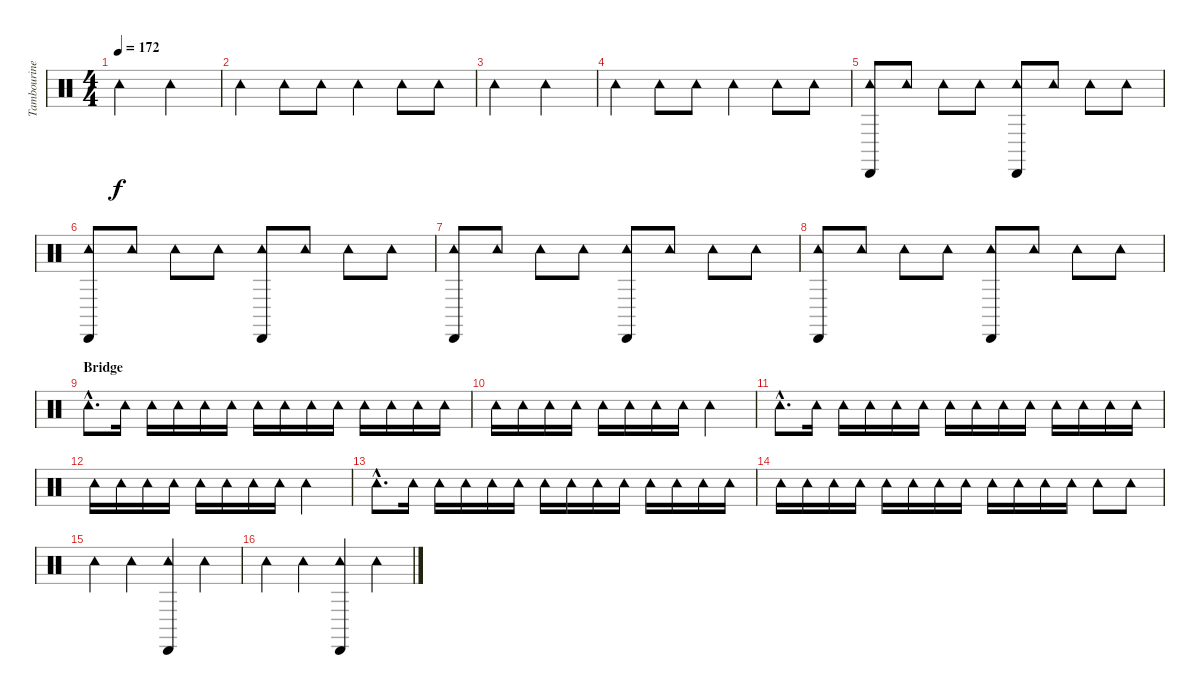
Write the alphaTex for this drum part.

\track ("Tambourine" "Tambourine") {instrument percussion}
\staff {score}
\articulation defaults
\ts (4 4)
\tempo 172
\clef neutral
\ks c "Tambourine (hit)".2{dy f} "Tambourine (hit)".2
|
"Tambourine (hit)".4 "Tambourine (hit)".8 "Tambourine (hit)".8 "Tambourine (hit)".4 "Tambourine (hit)".8 "Tambourine (hit)".8 |
"Tambourine (hit)".2 "Tambourine (hit)".2 |
"Tambourine (hit)".4 "Tambourine (hit)".8 "Tambourine (hit)".8 "Tambourine (hit)".4 "Tambourine (hit)".8 "Tambourine (hit)".8 |
("Tambourine (hit)" "Cabasa (hit)").8 "Tambourine (hit)".8 "Tambourine (hit)".8 "Tambourine (hit)".8 ("Tambourine (hit)" "Cabasa (hit)").8 "Tambourine (hit)".8 "Tambourine (hit)".8 "Tambourine (hit)".8 |
("Tambourine (hit)" "Cabasa (hit)").8 "Tambourine (hit)".8 "Tambourine (hit)".8 "Tambourine (hit)".8 ("Tambourine (hit)" "Cabasa (hit)").8 "Tambourine (hit)".8 "Tambourine (hit)".8 "Tambourine (hit)".8 |
("Tambourine (hit)" "Cabasa (hit)").8 "Tambourine (hit)".8 "Tambourine (hit)".8 "Tambourine (hit)".8 ("Tambourine (hit)" "Cabasa (hit)").8 "Tambourine (hit)".8 "Tambourine (hit)".8 "Tambourine (hit)".8 |
("Tambourine (hit)" "Cabasa (hit)").8 "Tambourine (hit)".8 "Tambourine (hit)".8 "Tambourine (hit)".8 ("Tambourine (hit)" "Cabasa (hit)").8 "Tambourine (hit)".8 "Tambourine (hit)".8 "Tambourine (hit)".8 |
\section ("" "Bridge")
"Tambourine (hit)"{hac}.8{d} "Tambourine (hit)".16 "Tambourine (hit)".16 "Tambourine (hit)".16 "Tambourine (hit)".16 "Tambourine (hit)".16 "Tambourine (hit)".16 "Tambourine (hit)".16 "Tambourine (hit)".16 "Tambourine (hit)".16 "Tambourine (hit)".16 "Tambourine (hit)".16 "Tambourine (hit)".16 "Tambourine (hit)".16 |
"Tambourine (hit)".16 "Tambourine (hit)".16 "Tambourine (hit)".16 "Tambourine (hit)".16 "Tambourine (hit)".16 "Tambourine (hit)".16 "Tambourine (hit)".16 "Tambourine (hit)".16 "Tambourine (hit)".2 |
"Tambourine (hit)"{hac}.8{d} "Tambourine (hit)".16 "Tambourine (hit)".16 "Tambourine (hit)".16 "Tambourine (hit)".16 "Tambourine (hit)".16 "Tambourine (hit)".16 "Tambourine (hit)".16 "Tambourine (hit)".16 "Tambourine (hit)".16 "Tambourine (hit)".16 "Tambourine (hit)".16 "Tambourine (hit)".16 "Tambourine (hit)".16 |
"Tambourine (hit)".16 "Tambourine (hit)".16 "Tambourine (hit)".16 "Tambourine (hit)".16 "Tambourine (hit)".16 "Tambourine (hit)".16 "Tambourine (hit)".16 "Tambourine (hit)".16 "Tambourine (hit)".2 |
"Tambourine (hit)"{hac}.8{d} "Tambourine (hit)".16 "Tambourine (hit)".16 "Tambourine (hit)".16 "Tambourine (hit)".16 "Tambourine (hit)".16 "Tambourine (hit)".16 "Tambourine (hit)".16 "Tambourine (hit)".16 "Tambourine (hit)".16 "Tambourine (hit)".16 "Tambourine (hit)".16 "Tambourine (hit)".16 "Tambourine (hit)".16 |
"Tambourine (hit)".16 "Tambourine (hit)".16 "Tambourine (hit)".16 "Tambourine (hit)".16 "Tambourine (hit)".16 "Tambourine (hit)".16 "Tambourine (hit)".16 "Tambourine (hit)".16 "Tambourine (hit)".16 "Tambourine (hit)".16 "Tambourine (hit)".16 "Tambourine (hit)".16 "Tambourine (hit)".8 "Tambourine (hit)".8 |
"Tambourine (hit)".4 "Tambourine (hit)".4 ("Tambourine (hit)" "Cabasa (hit)").4 "Tambourine (hit)".4 |
"Tambourine (hit)".4 "Tambourine (hit)".4 ("Tambourine (hit)" "Cabasa (hit)").4 "Tambourine (hit)".4
